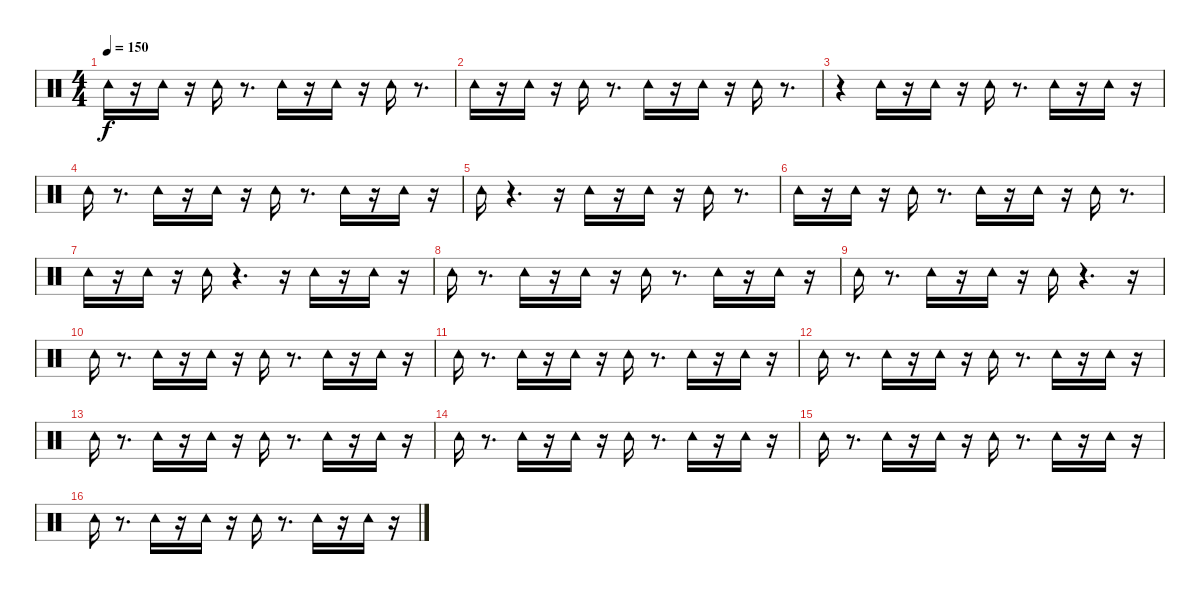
\track "" {instrument percussion}
\staff {score}
\articulation defaults
\ts (4 4)
\tempo 150
\clef neutral
\ks c "Tambourine (hit)".16{dy f}
r.16 "Tambourine (hit)".16 r.16 "Tambourine (hit)".16 r.8{d} "Tambourine (hit)".16 r.16 "Tambourine (hit)".16 r.16 "Tambourine (hit)".16 r.8{d} |
"Tambourine (hit)".16 r.16 "Tambourine (hit)".16 r.16 "Tambourine (hit)".16 r.8{d} "Tambourine (hit)".16 r.16 "Tambourine (hit)".16 r.16 "Tambourine (hit)".16 r.8{d} |
r.4 "Tambourine (hit)".16 r.16 "Tambourine (hit)".16 r.16 "Tambourine (hit)".16 r.8{d} "Tambourine (hit)".16 r.16 "Tambourine (hit)".16 r.16 |
"Tambourine (hit)".16 r.8{d} "Tambourine (hit)".16 r.16 "Tambourine (hit)".16 r.16 "Tambourine (hit)".16 r.8{d} "Tambourine (hit)".16 r.16 "Tambourine (hit)".16 r.16 |
"Tambourine (hit)".16 r.4{d} r.16 "Tambourine (hit)".16 r.16 "Tambourine (hit)".16 r.16 "Tambourine (hit)".16 r.8{d} |
"Tambourine (hit)".16 r.16 "Tambourine (hit)".16 r.16 "Tambourine (hit)".16 r.8{d} "Tambourine (hit)".16 r.16 "Tambourine (hit)".16 r.16 "Tambourine (hit)".16 r.8{d} |
"Tambourine (hit)".16 r.16 "Tambourine (hit)".16 r.16 "Tambourine (hit)".16 r.4{d} r.16 "Tambourine (hit)".16 r.16 "Tambourine (hit)".16 r.16 |
"Tambourine (hit)".16 r.8{d} "Tambourine (hit)".16 r.16 "Tambourine (hit)".16 r.16 "Tambourine (hit)".16 r.8{d} "Tambourine (hit)".16 r.16 "Tambourine (hit)".16 r.16 |
"Tambourine (hit)".16 r.8{d} "Tambourine (hit)".16 r.16 "Tambourine (hit)".16 r.16 "Tambourine (hit)".16 r.4{d} r.16 |
"Tambourine (hit)".16 r.8{d} "Tambourine (hit)".16 r.16 "Tambourine (hit)".16 r.16 "Tambourine (hit)".16 r.8{d} "Tambourine (hit)".16 r.16 "Tambourine (hit)".16 r.16 |
"Tambourine (hit)".16 r.8{d} "Tambourine (hit)".16 r.16 "Tambourine (hit)".16 r.16 "Tambourine (hit)".16 r.8{d} "Tambourine (hit)".16 r.16 "Tambourine (hit)".16 r.16 |
"Tambourine (hit)".16 r.8{d} "Tambourine (hit)".16 r.16 "Tambourine (hit)".16 r.16 "Tambourine (hit)".16 r.8{d} "Tambourine (hit)".16 r.16 "Tambourine (hit)".16 r.16 |
"Tambourine (hit)".16 r.8{d} "Tambourine (hit)".16 r.16 "Tambourine (hit)".16 r.16 "Tambourine (hit)".16 r.8{d} "Tambourine (hit)".16 r.16 "Tambourine (hit)".16 r.16 |
"Tambourine (hit)".16 r.8{d} "Tambourine (hit)".16 r.16 "Tambourine (hit)".16 r.16 "Tambourine (hit)".16 r.8{d} "Tambourine (hit)".16 r.16 "Tambourine (hit)".16 r.16 |
"Tambourine (hit)".16 r.8{d} "Tambourine (hit)".16 r.16 "Tambourine (hit)".16 r.16 "Tambourine (hit)".16 r.8{d} "Tambourine (hit)".16 r.16 "Tambourine (hit)".16 r.16 |
"Tambourine (hit)".16 r.8{d} "Tambourine (hit)".16 r.16 "Tambourine (hit)".16 r.16 "Tambourine (hit)".16 r.8{d} "Tambourine (hit)".16 r.16 "Tambourine (hit)".16 r.16
